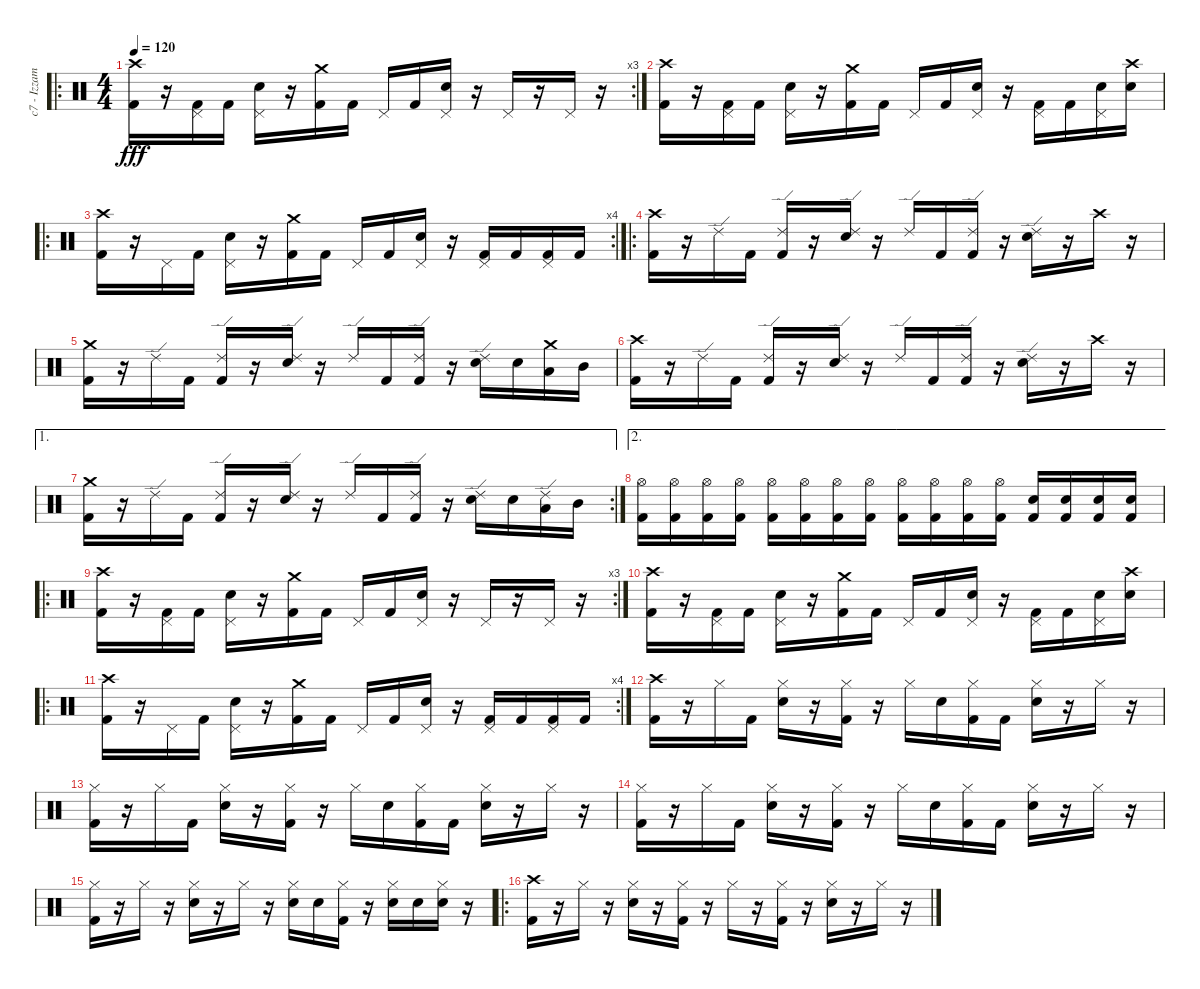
\track ("c7 - Izzam - Drums" "c7 - Izzam") {instrument percussion}
\staff {score}
\articulation defaults
\ro
\rc 3
\ts (4 4)
\tempo 120
\clef neutral
\ks c
("Crash high (hit)" "Kick (hit) 2").16{dy fff} r.16 ("Pedal Hi-Hat (hit)" "Kick (hit) 2").16 "Kick (hit) 2".16 ("Pedal Hi-Hat (hit)" "Electric Snare (hit)").16 r.16 ("Crash medium (hit)" "Kick (hit) 2").16 "Kick (hit) 2".16 "Pedal Hi-Hat (hit)".16 "Kick (hit) 2".16 ("Pedal Hi-Hat (hit)" "Electric Snare (hit)").16 r.16 "Pedal Hi-Hat (hit)".16 r.16 "Pedal Hi-Hat (hit)".16 r.16 |
("Crash high (hit)" "Kick (hit) 2").16 r.16 ("Pedal Hi-Hat (hit)" "Kick (hit) 2").16 "Kick (hit) 2".16 ("Pedal Hi-Hat (hit)" "Electric Snare (hit)").16 r.16 ("Crash medium (hit)" "Kick (hit) 2").16 "Kick (hit) 2".16 "Pedal Hi-Hat (hit)".16 "Kick (hit) 2".16 ("Pedal Hi-Hat (hit)" "Electric Snare (hit)").16 r.16 ("Pedal Hi-Hat (hit)" "Kick (hit) 2").16 "Kick (hit) 2".16 ("Pedal Hi-Hat (hit)" "Electric Snare (hit)").16 ("Crash high (hit)" "Electric Snare (hit)").16 |
\ro
\rc 4
("Crash high (hit)" "Kick (hit) 2").16 r.16 "Pedal Hi-Hat (hit)".16 "Kick (hit) 2".16 ("Pedal Hi-Hat (hit)" "Electric Snare (hit)").16 r.16 ("Crash medium (hit)" "Kick (hit) 2").16 "Kick (hit) 2".16 "Pedal Hi-Hat (hit)".16 "Kick (hit) 2".16 ("Pedal Hi-Hat (hit)" "Electric Snare (hit)").16 r.16 ("Pedal Hi-Hat (hit)" "Kick (hit) 2").16 "Kick (hit) 2".16 ("Pedal Hi-Hat (hit)" "Kick (hit) 2").16 "Kick (hit) 2".16 |
\ro
("Crash high (hit)" "Kick (hit) 2").16 r.16 "Ride (edge) 2".16 "Kick (hit) 2".16 ("Ride (edge) 2" "Kick (hit) 2").16 r.16 ("Ride (edge) 2" "Electric Snare (hit)").16 r.16 "Ride (edge) 2".16 "Kick (hit) 2".16 ("Ride (edge) 2" "Kick (hit) 2").16 r.16 ("Ride (edge) 2" "Electric Snare (hit)").16 r.16 "Crash high (hit)".16 r.16 |
("Crash medium (hit)" "Kick (hit) 2").16 r.16 "Ride (edge) 2".16 "Kick (hit) 2".16 ("Ride (edge) 2" "Kick (hit) 2").16 r.16 ("Ride (edge) 2" "Electric Snare (hit)").16 r.16 "Ride (edge) 2".16 "Kick (hit) 2".16 ("Ride (edge) 2" "Kick (hit) 2").16 r.16 ("Ride (edge) 2" "Electric Snare (hit)").16 "Electric Snare (hit)".16 ("Crash medium (hit)" "Low Tom (hit)").16 "Mid Tom (hit)".16 |
("Crash high (hit)" "Kick (hit) 2").16 r.16 "Ride (edge) 2".16 "Kick (hit) 2".16 ("Ride (edge) 2" "Kick (hit) 2").16 r.16 ("Ride (edge) 2" "Electric Snare (hit)").16 r.16 "Ride (edge) 2".16 "Kick (hit) 2".16 ("Ride (edge) 2" "Kick (hit) 2").16 r.16 ("Ride (edge) 2" "Electric Snare (hit)").16 r.16 "Crash high (hit)".16 r.16 |
\ae 1
\rc 2
("Crash medium (hit)" "Kick (hit) 2").16 r.16 "Ride (edge) 2".16 "Kick (hit) 2".16 ("Ride (edge) 2" "Kick (hit) 2").16 r.16 ("Ride (edge) 2" "Electric Snare (hit)").16 r.16 "Ride (edge) 2".16 "Kick (hit) 2".16 ("Ride (edge) 2" "Kick (hit) 2").16 r.16 ("Ride (edge) 2" "Electric Snare (hit)").16 "Electric Snare (hit)".16 ("Ride (edge) 2" "Low Tom (hit)").16 "Mid Tom (hit)".16 |
\ae 2
("Hi-Hat (open)" "Kick (hit) 2").16 ("Hi-Hat (open)" "Kick (hit) 2").16 ("Hi-Hat (open)" "Kick (hit) 2").16 ("Hi-Hat (open)" "Kick (hit) 2").16 ("Hi-Hat (open)" "Kick (hit) 2").16 ("Hi-Hat (open)" "Kick (hit) 2").16 ("Hi-Hat (open)" "Kick (hit) 2").16 ("Hi-Hat (open)" "Kick (hit) 2").16 ("Hi-Hat (open)" "Kick (hit) 2").16 ("Hi-Hat (open)" "Kick (hit) 2").16 ("Hi-Hat (open)" "Kick (hit) 2").16 ("Hi-Hat (open)" "Kick (hit) 2").16 ("Electric Snare (hit)" "Kick (hit) 2").16 ("Electric Snare (hit)" "Kick (hit) 2").16 ("Electric Snare (hit)" "Kick (hit) 2").16 ("Electric Snare (hit)" "Kick (hit) 2").16 |
\ro
\rc 3
("Crash high (hit)" "Kick (hit) 2").16 r.16 ("Pedal Hi-Hat (hit)" "Kick (hit) 2").16 "Kick (hit) 2".16 ("Pedal Hi-Hat (hit)" "Electric Snare (hit)").16 r.16 ("Crash medium (hit)" "Kick (hit) 2").16 "Kick (hit) 2".16 "Pedal Hi-Hat (hit)".16 "Kick (hit) 2".16 ("Pedal Hi-Hat (hit)" "Electric Snare (hit)").16 r.16 "Pedal Hi-Hat (hit)".16 r.16 "Pedal Hi-Hat (hit)".16 r.16 |
("Crash high (hit)" "Kick (hit) 2").16 r.16 ("Pedal Hi-Hat (hit)" "Kick (hit) 2").16 "Kick (hit) 2".16 ("Pedal Hi-Hat (hit)" "Electric Snare (hit)").16 r.16 ("Crash medium (hit)" "Kick (hit) 2").16 "Kick (hit) 2".16 "Pedal Hi-Hat (hit)".16 "Kick (hit) 2".16 ("Pedal Hi-Hat (hit)" "Electric Snare (hit)").16 r.16 ("Pedal Hi-Hat (hit)" "Kick (hit) 2").16 "Kick (hit) 2".16 ("Pedal Hi-Hat (hit)" "Electric Snare (hit)").16 ("Crash high (hit)" "Electric Snare (hit)").16 |
\ro
\rc 4
("Crash high (hit)" "Kick (hit) 2").16 r.16 "Pedal Hi-Hat (hit)".16 "Kick (hit) 2".16 ("Pedal Hi-Hat (hit)" "Electric Snare (hit)").16 r.16 ("Crash medium (hit)" "Kick (hit) 2").16 "Kick (hit) 2".16 "Pedal Hi-Hat (hit)".16 "Kick (hit) 2".16 ("Pedal Hi-Hat (hit)" "Electric Snare (hit)").16 r.16 ("Pedal Hi-Hat (hit)" "Kick (hit) 2").16 "Kick (hit) 2".16 ("Pedal Hi-Hat (hit)" "Kick (hit) 2").16 "Kick (hit) 2".16 |
("Crash high (hit)" "Kick (hit) 2").16 r.16 "Hi-Hat (closed)".16 "Kick (hit) 2".16 ("Hi-Hat (closed)" "Electric Snare (hit)").16 r.16 ("Hi-Hat (closed)" "Kick (hit) 2").16 r.16 "Hi-Hat (closed)".16 "Electric Snare (hit)".16 ("Hi-Hat (closed)" "Kick (hit) 2").16 "Kick (hit) 2".16 ("Hi-Hat (closed)" "Electric Snare (hit)").16 r.16 "Hi-Hat (closed)".16 r.16 |
("Hi-Hat (closed)" "Kick (hit) 2").16 r.16 "Hi-Hat (closed)".16 "Kick (hit) 2".16 ("Hi-Hat (closed)" "Electric Snare (hit)").16 r.16 ("Hi-Hat (closed)" "Kick (hit) 2").16 r.16 "Hi-Hat (closed)".16 "Electric Snare (hit)".16 ("Hi-Hat (closed)" "Kick (hit) 2").16 "Kick (hit) 2".16 ("Hi-Hat (closed)" "Electric Snare (hit)").16 r.16 "Hi-Hat (closed)".16 r.16 |
("Hi-Hat (closed)" "Kick (hit) 2").16 r.16 "Hi-Hat (closed)".16 "Kick (hit) 2".16 ("Hi-Hat (closed)" "Electric Snare (hit)").16 r.16 ("Hi-Hat (closed)" "Kick (hit) 2").16 r.16 "Hi-Hat (closed)".16 "Electric Snare (hit)".16 ("Hi-Hat (closed)" "Kick (hit) 2").16 "Kick (hit) 2".16 ("Hi-Hat (closed)" "Electric Snare (hit)").16 r.16 "Hi-Hat (closed)".16 r.16 |
("Hi-Hat (closed)" "Kick (hit) 2").16 r.16 "Hi-Hat (closed)".16 r.16 ("Hi-Hat (closed)" "Electric Snare (hit)").16 r.16 "Hi-Hat (closed)".16 r.16 ("Hi-Hat (closed)" "Electric Snare (hit)").16 "Electric Snare (hit)".16 ("Hi-Hat (closed)" "Kick (hit) 2").16 r.16 ("Hi-Hat (closed)" "Electric Snare (hit)").16 "Electric Snare (hit)".16 ("Hi-Hat (closed)" "Electric Snare (hit)").16 r.16 |
\ro
("Crash high (hit)" "Kick (hit) 2").16 r.16 "Hi-Hat (closed)".16 r.16 ("Hi-Hat (closed)" "Electric Snare (hit)").16 r.16 ("Hi-Hat (closed)" "Kick (hit) 2").16 r.16 "Hi-Hat (closed)".16 r.16 ("Hi-Hat (closed)" "Kick (hit) 2").16 r.16 ("Hi-Hat (closed)" "Electric Snare (hit)").16 r.16 "Hi-Hat (closed)".16 r.16
